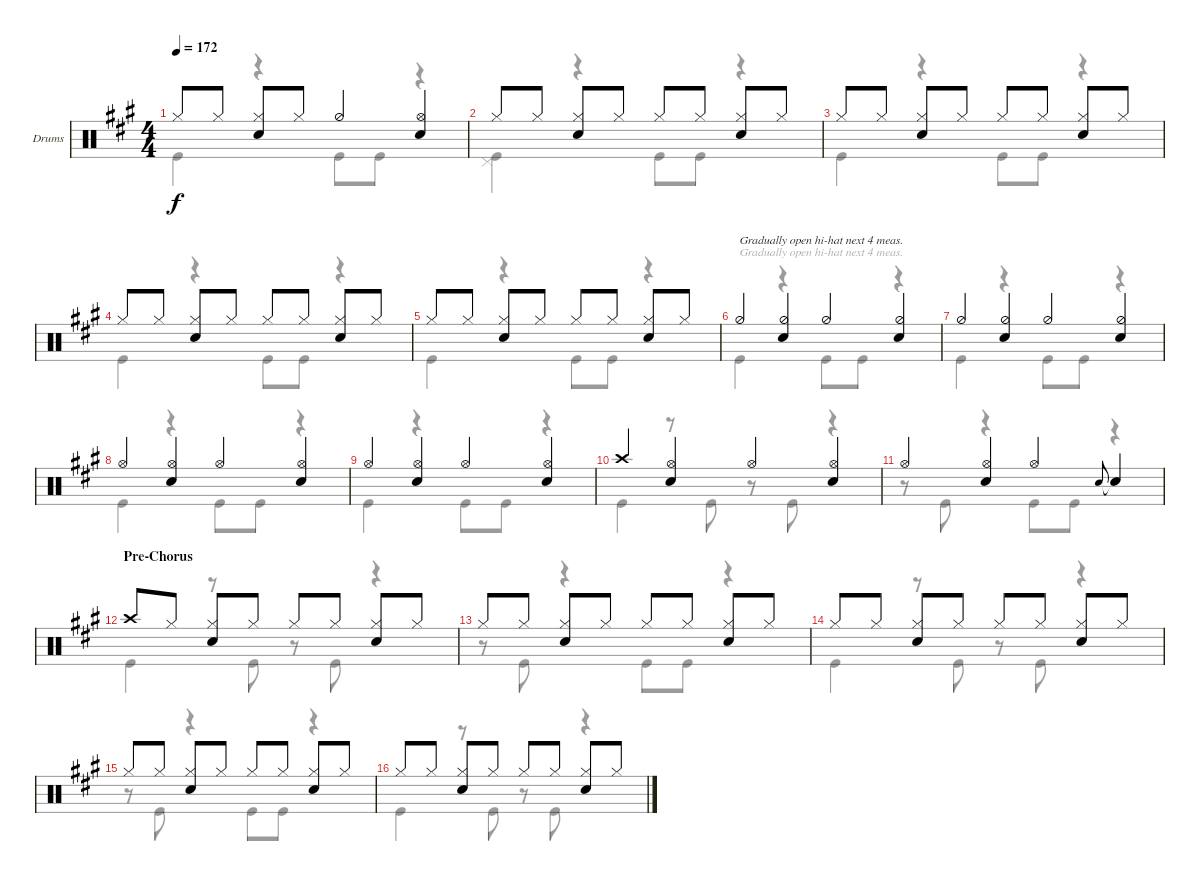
\defaultSystemsLayout 4
\bracketExtendMode groupsimilarinstruments
\firstSystemTrackNameOrientation horizontal
\otherSystemsTrackNameOrientation horizontal
\track ("Taylor Hawkins" "Drums") {instrument percussion}
\staff {score}
\articulation defaults
\voice
\ts (4 4)
\tempo 172
\clef neutral
\ks a "Hi-Hat (closed)".8{dy f} "Hi-Hat (closed)".8
("Hi-Hat (closed)" "Snare (hit) 2").8 "Hi-Hat (closed)".8 "Hi-Hat (half)".4 ("Snare (hit) 2" "Hi-Hat (open)").4 |
"Hi-Hat (closed)".8 "Hi-Hat (closed)".8 ("Hi-Hat (closed)" "Snare (hit) 2").8 "Hi-Hat (closed)".8 "Hi-Hat (closed)".8 "Hi-Hat (closed)".8 ("Hi-Hat (closed)" "Snare (hit) 2").8 "Hi-Hat (closed)".8 |
"Hi-Hat (closed)".8 "Hi-Hat (closed)".8 ("Hi-Hat (closed)" "Snare (hit) 2").8 "Hi-Hat (closed)".8 "Hi-Hat (closed)".8 "Hi-Hat (closed)".8 ("Hi-Hat (closed)" "Snare (hit) 2").8 "Hi-Hat (closed)".8 |
"Hi-Hat (closed)".8 "Hi-Hat (closed)".8 ("Hi-Hat (closed)" "Snare (hit) 2").8 "Hi-Hat (closed)".8 "Hi-Hat (closed)".8 "Hi-Hat (closed)".8 ("Hi-Hat (closed)" "Snare (hit) 2").8 "Hi-Hat (closed)".8 |
"Hi-Hat (closed)".8 "Hi-Hat (closed)".8 ("Hi-Hat (closed)" "Snare (hit) 2").8 "Hi-Hat (closed)".8 "Hi-Hat (closed)".8 "Hi-Hat (closed)".8 ("Hi-Hat (closed)" "Snare (hit) 2").8 "Hi-Hat (closed)".8 |
"Hi-Hat (half)".4{txt "Gradually open hi-hat next 4 meas."} ("Hi-Hat (half)" "Snare (hit) 2").4 "Hi-Hat (half)".4 ("Hi-Hat (half)" "Snare (hit) 2").4 |
"Hi-Hat (half)".4 ("Hi-Hat (half)" "Snare (hit) 2").4 "Hi-Hat (half)".4 ("Hi-Hat (half)" "Snare (hit) 2").4 |
"Hi-Hat (open)".4 ("Hi-Hat (open)" "Snare (hit) 2").4 "Hi-Hat (open)".4 ("Hi-Hat (open)" "Snare (hit) 2").4 |
"Hi-Hat (open)".4 ("Hi-Hat (open)" "Snare (hit) 2").4 "Hi-Hat (open)".4 ("Hi-Hat (open)" "Snare (hit) 2").4 |
\scale
0.333333 "Crash high (hit)".4 ("Hi-Hat (open)" "Snare (hit) 2").4 "Hi-Hat (open)".4 ("Hi-Hat (open)" "Snare (hit) 2").4 |
\scale
0.333333 "Hi-Hat (open)".4 ("Hi-Hat (open)" "Snare (hit) 2").4 "Hi-Hat (open)".4 "Snare (hit) 2".8{gr onbeat} "Snare (hit) 2"{t}.4 |
\section ("" "Pre-Chorus")
"Crash high (hit)".8 "Hi-Hat (closed)".8 ("Hi-Hat (closed)" "Snare (hit) 2").8 "Hi-Hat (closed)".8 "Hi-Hat (closed)".8 "Hi-Hat (closed)".8 ("Hi-Hat (closed)" "Snare (hit) 2").8 "Hi-Hat (closed)".8 |
"Hi-Hat (closed)".8 "Hi-Hat (closed)".8 ("Hi-Hat (closed)" "Snare (hit) 2").8 "Hi-Hat (closed)".8 "Hi-Hat (closed)".8 "Hi-Hat (closed)".8 ("Hi-Hat (closed)" "Snare (hit) 2").8 "Hi-Hat (closed)".8 |
"Hi-Hat (closed)".8 "Hi-Hat (closed)".8 ("Hi-Hat (closed)" "Snare (hit) 2").8 "Hi-Hat (closed)".8 "Hi-Hat (closed)".8 "Hi-Hat (closed)".8 ("Hi-Hat (closed)" "Snare (hit) 2").8 "Hi-Hat (closed)".8 |
"Hi-Hat (closed)".8 "Hi-Hat (closed)".8 ("Hi-Hat (closed)" "Snare (hit) 2").8 "Hi-Hat (closed)".8 "Hi-Hat (closed)".8 "Hi-Hat (closed)".8 ("Hi-Hat (closed)" "Snare (hit) 2").8 "Hi-Hat (closed)".8 |
"Hi-Hat (closed)".8 "Hi-Hat (closed)".8 ("Hi-Hat (closed)" "Snare (hit) 2").8 "Hi-Hat (closed)".8 "Hi-Hat (closed)".8 "Hi-Hat (closed)".8 ("Hi-Hat (closed)" "Snare (hit) 2").8 "Hi-Hat (closed)".8
\voice
\clef neutral
\ottava regular
\simile none
\ks a "Kick (hit)".4{dy f}
r.4 "Kick (hit)".8 "Kick (hit)".8 r.4 |
("Kick (hit)" "Pedal Hi-Hat (hit)").4 r.4 "Kick (hit)".8 "Kick (hit)".8 r.4 |
"Kick (hit)".4 r.4 "Kick (hit)".8 "Kick (hit)".8 r.4 |
"Kick (hit)".4 r.4 "Kick (hit)".8 "Kick (hit)".8 r.4 |
"Kick (hit)".4 r.4 "Kick (hit)".8 "Kick (hit)".8 r.4 |
"Kick (hit)".4{txt "Gradually open hi-hat next 4 meas."} r.4 "Kick (hit)".8 "Kick (hit)".8 r.4 |
"Kick (hit)".4 r.4 "Kick (hit)".8 "Kick (hit)".8 r.4 |
"Kick (hit)".4 r.4 "Kick (hit)".8 "Kick (hit)".8 r.4 |
"Kick (hit)".4 r.4 "Kick (hit)".8 "Kick (hit)".8 r.4 |
\scale
0.333333 "Kick (hit)".4 r.8 "Kick (hit)".8 r.8 "Kick (hit)".8 r.4 |
\scale
0.333333 r.8 "Kick (hit)".8 r.4 "Kick (hit)".8 "Kick (hit)".8 r.4 |
"Kick (hit)".4 r.8 "Kick (hit)".8 r.8 "Kick (hit)".8 r.4 |
r.8 "Kick (hit)".8 r.4 "Kick (hit)".8 "Kick (hit)".8 r.4 |
"Kick (hit)".4 r.8 "Kick (hit)".8 r.8 "Kick (hit)".8 r.4 |
r.8 "Kick (hit)".8 r.4 "Kick (hit)".8 "Kick (hit)".8 r.4 |
"Kick (hit)".4 r.8 "Kick (hit)".8 r.8 "Kick (hit)".8 r.4
